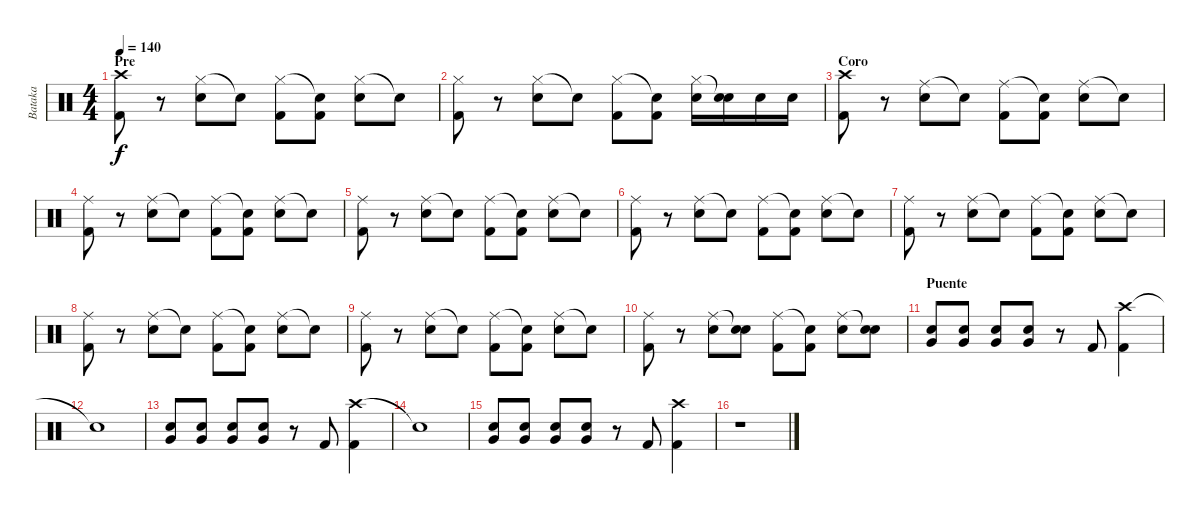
\track ("Bataka" "Bataka") {instrument percussion}
\staff {score}
\articulation defaults
\ts (4 4)
\section ("" "Pre ")
\tempo 140
\clef neutral
\ks c
("Crash high (hit)" "Kick (hit) 2").8{dy f} r.8 ("Hi-Hat (closed)" "Snare (hit) 2").8 "Snare (hit)"{t}.8 ("Hi-Hat (closed)" "Kick (hit) 2").8 ("Snare (hit)"{t} "Kick (hit) 2").8 ("Hi-Hat (closed)" "Snare (hit) 2").8 "Snare (hit)"{t}.8 |
("Hi-Hat (closed)" "Kick (hit) 2").8 r.8 ("Hi-Hat (closed)" "Snare (hit) 2").8 "Snare (hit)"{t}.8 ("Hi-Hat (closed)" "Kick (hit) 2").8 ("Snare (hit)"{t} "Kick (hit) 2").8 ("Hi-Hat (closed)" "Snare (hit) 2").16 ("Snare (hit)"{t} "Snare (hit) 2").16 "Snare (hit) 2".16 "Snare (hit) 2".16 |
\section ("" "Coro")
("Crash high (hit)" "Kick (hit) 2").8 r.8 ("Ride (middle)" "Snare (hit) 2").8 "Snare (hit)"{t}.8 ("Ride (middle)" "Kick (hit) 2").8 ("Snare (hit)"{t} "Kick (hit) 2").8 ("Ride (middle)" "Snare (hit) 2").8 "Snare (hit)"{t}.8 |
("Ride (middle)" "Kick (hit) 2").8 r.8 ("Ride (middle)" "Snare (hit) 2").8 "Snare (hit)"{t}.8 ("Ride (middle)" "Kick (hit) 2").8 ("Snare (hit)"{t} "Kick (hit) 2").8 ("Ride (middle)" "Snare (hit) 2").8 "Snare (hit)"{t}.8 |
("Ride (middle)" "Kick (hit) 2").8 r.8 ("Ride (middle)" "Snare (hit) 2").8 "Snare (hit)"{t}.8 ("Ride (middle)" "Kick (hit) 2").8 ("Snare (hit)"{t} "Kick (hit) 2").8 ("Ride (middle)" "Snare (hit) 2").8 "Snare (hit)"{t}.8 |
("Ride (middle)" "Kick (hit) 2").8 r.8 ("Ride (middle)" "Snare (hit) 2").8 "Snare (hit)"{t}.8 ("Ride (middle)" "Kick (hit) 2").8 ("Snare (hit)"{t} "Kick (hit) 2").8 ("Ride (middle)" "Snare (hit) 2").8 "Snare (hit)"{t}.8 |
("Ride (middle)" "Kick (hit) 2").8 r.8 ("Ride (middle)" "Snare (hit) 2").8 "Snare (hit)"{t}.8 ("Ride (middle)" "Kick (hit) 2").8 ("Snare (hit)"{t} "Kick (hit) 2").8 ("Ride (middle)" "Snare (hit) 2").8 "Snare (hit)"{t}.8 |
("Ride (middle)" "Kick (hit) 2").8 r.8 ("Ride (middle)" "Snare (hit) 2").8 "Snare (hit)"{t}.8 ("Ride (middle)" "Kick (hit) 2").8 ("Snare (hit)"{t} "Kick (hit) 2").8 ("Ride (middle)" "Snare (hit) 2").8 "Snare (hit)"{t}.8 |
("Ride (middle)" "Kick (hit) 2").8 r.8 ("Ride (middle)" "Snare (hit) 2").8 "Snare (hit)"{t}.8 ("Ride (middle)" "Kick (hit) 2").8 ("Snare (hit)"{t} "Kick (hit) 2").8 ("Ride (middle)" "Snare (hit) 2").8 "Snare (hit)"{t}.8 |
("Ride (middle)" "Kick (hit) 2").8 r.8 ("Ride (middle)" "Snare (hit) 2").8 ("Snare (hit)"{t} "Snare (hit) 2").8 ("Ride (middle)" "Kick (hit) 2").8 ("Snare (hit)"{t} "Kick (hit) 2").8 ("Ride (middle)" "Snare (hit) 2").8 ("Snare (hit)"{t} "Snare (hit) 2").8 |
\section ("" "Puente")
("Snare (hit) 2" "Very Low Tom (hit)").8 ("Snare (hit) 2" "Very Low Tom (hit)").8 ("Snare (hit) 2" "Very Low Tom (hit)").8 ("Snare (hit) 2" "Very Low Tom (hit)").8 r.8 "Kick (hit) 2".8 ("Crash high (hit)" "Kick (hit) 2").4 |
"Snare (hit)"{t}.1 |
("Snare (hit) 2" "Very Low Tom (hit)").8 ("Snare (hit) 2" "Very Low Tom (hit)").8 ("Snare (hit) 2" "Very Low Tom (hit)").8 ("Snare (hit) 2" "Very Low Tom (hit)").8 r.8 "Kick (hit) 2".8 ("Crash high (hit)" "Kick (hit) 2").4 |
"Snare (hit)"{t}.1 |
("Snare (hit) 2" "Very Low Tom (hit)").8 ("Snare (hit) 2" "Very Low Tom (hit)").8 ("Snare (hit) 2" "Very Low Tom (hit)").8 ("Snare (hit) 2" "Very Low Tom (hit)").8 r.8 "Kick (hit) 2".8 ("Crash high (hit)" "Kick (hit) 2").4 |
r.1
